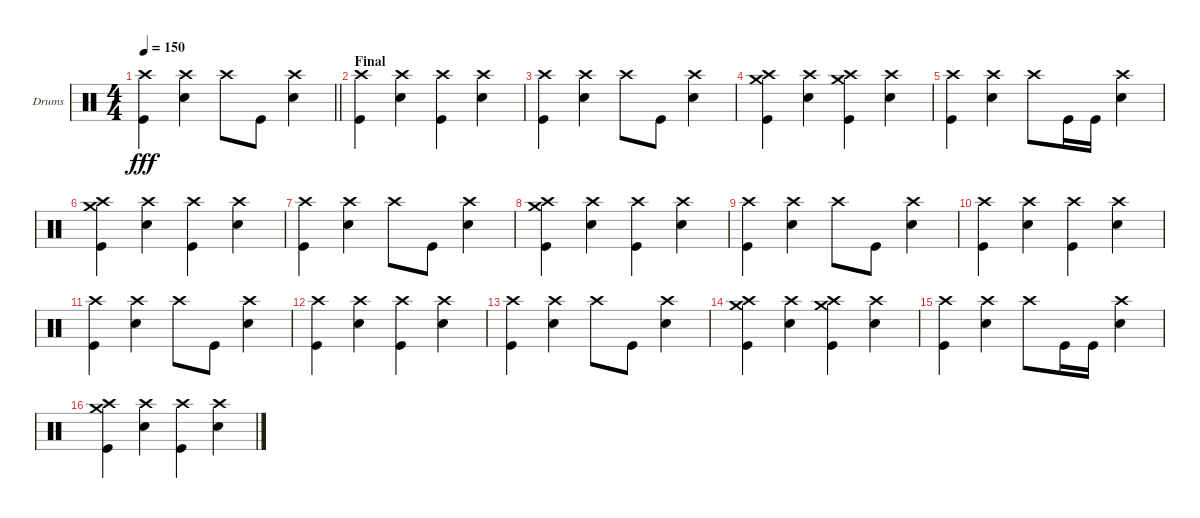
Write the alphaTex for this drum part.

\bracketExtendMode groupsimilarinstruments
\firstSystemTrackNameOrientation horizontal
\otherSystemsTrackNameOrientation horizontal
\track ("Drumkit" "Drums") {instrument percussion}
\staff {score}
\articulation defaults
\ts (4 4)
\tempo 150
\clef neutral
\barLineRight lightlight
\ks c
("Crash high (hit)" "Kick (hit)").4{dy fff} ("Crash high (hit)" "Snare (hit) 2").4 "Crash high (hit)".8 "Kick (hit)".8 ("Crash high (hit)" "Snare (hit) 2").4 |
\section ("" "Final")
("Crash high (hit)" "Kick (hit)").4 ("Crash high (hit)" "Snare (hit) 2").4 ("Crash high (hit)" "Kick (hit)").4 ("Crash high (hit)" "Snare (hit) 2").4 |
("Crash high (hit)" "Kick (hit)").4 ("Crash high (hit)" "Snare (hit) 2").4 "Crash high (hit)".8 "Kick (hit)".8 ("Crash high (hit)" "Snare (hit) 2").4 |
("Crash high (hit)" "Crash medium (hit)" "Kick (hit)").4 ("Crash high (hit)" "Snare (hit) 2").4 ("Crash high (hit)" "Crash medium (hit)" "Kick (hit)").4 ("Crash high (hit)" "Snare (hit) 2").4 |
("Crash high (hit)" "Kick (hit)").4 ("Crash high (hit)" "Snare (hit) 2").4 "Crash high (hit)".8 "Kick (hit)".16 "Kick (hit)".16 ("Crash high (hit)" "Snare (hit) 2").4 |
("Crash high (hit)" "Crash medium (hit)" "Kick (hit)").4 ("Crash high (hit)" "Snare (hit) 2").4 ("Crash high (hit)" "Kick (hit)").4 ("Crash high (hit)" "Snare (hit) 2").4 |
("Crash high (hit)" "Kick (hit)").4 ("Crash high (hit)" "Snare (hit) 2").4 "Crash high (hit)".8 "Kick (hit)".8 ("Crash high (hit)" "Snare (hit) 2").4 |
("Crash high (hit)" "Crash medium (hit)" "Kick (hit)").4 ("Crash high (hit)" "Snare (hit) 2").4 ("Crash high (hit)" "Kick (hit)").4 ("Crash high (hit)" "Snare (hit) 2").4 |
("Crash high (hit)" "Kick (hit)").4 ("Crash high (hit)" "Snare (hit) 2").4 "Crash high (hit)".8 "Kick (hit)".8 ("Crash high (hit)" "Snare (hit) 2").4 |
("Crash high (hit)" "Kick (hit)").4 ("Crash high (hit)" "Snare (hit) 2").4 ("Crash high (hit)" "Kick (hit)").4 ("Crash high (hit)" "Snare (hit) 2").4 |
("Crash high (hit)" "Kick (hit)").4 ("Crash high (hit)" "Snare (hit) 2").4 "Crash high (hit)".8 "Kick (hit)".8 ("Crash high (hit)" "Snare (hit) 2").4 |
("Crash high (hit)" "Kick (hit)").4 ("Crash high (hit)" "Snare (hit) 2").4 ("Crash high (hit)" "Kick (hit)").4 ("Crash high (hit)" "Snare (hit) 2").4 |
("Crash high (hit)" "Kick (hit)").4 ("Crash high (hit)" "Snare (hit) 2").4 "Crash high (hit)".8 "Kick (hit)".8 ("Crash high (hit)" "Snare (hit) 2").4 |
("Crash high (hit)" "Crash medium (hit)" "Kick (hit)").4 ("Crash high (hit)" "Snare (hit) 2").4 ("Crash high (hit)" "Crash medium (hit)" "Kick (hit)").4 ("Crash high (hit)" "Snare (hit) 2").4 |
("Crash high (hit)" "Kick (hit)").4 ("Crash high (hit)" "Snare (hit) 2").4 "Crash high (hit)".8 "Kick (hit)".16 "Kick (hit)".16 ("Crash high (hit)" "Snare (hit) 2").4 |
("Crash high (hit)" "Crash medium (hit)" "Kick (hit)").4 ("Crash high (hit)" "Snare (hit) 2").4 ("Crash high (hit)" "Kick (hit)").4 ("Crash high (hit)" "Snare (hit) 2").4
